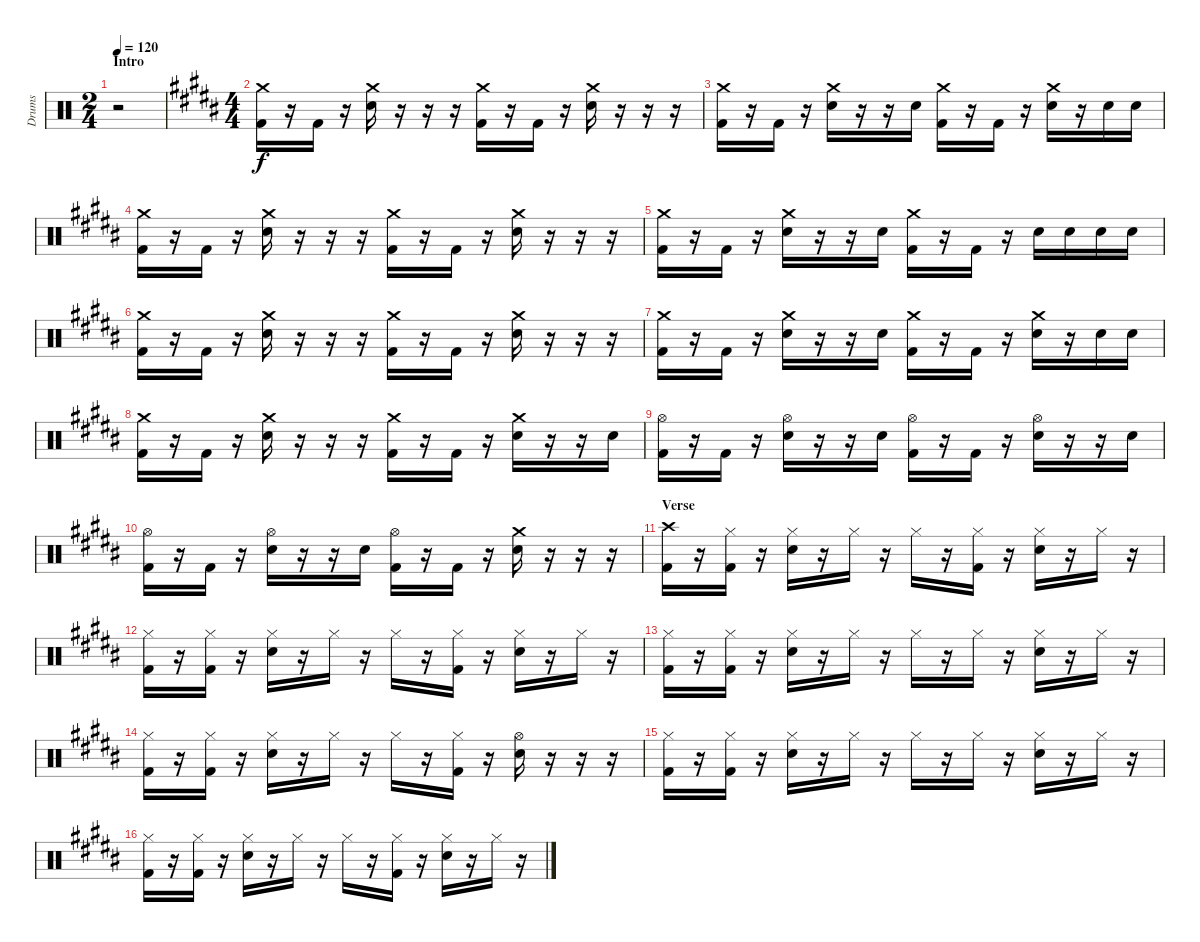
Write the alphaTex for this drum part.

\track ("Drums" "Drums") {instrument percussion}
\staff {score}
\articulation defaults
\ts (2 4)
\section ("" "Intro")
\tempo 120
\clef neutral
\ks c
r.2{dy f} |
\ts (4 4)
\ks b
("Crash medium (hit)" "Kick (hit) 2").16 r.16 "Kick (hit) 2".16 r.16 ("Crash medium (hit)" "Snare (hit) 2").16 r.16 r.16 r.16 ("Crash medium (hit)" "Kick (hit) 2").16 r.16 "Kick (hit) 2".16 r.16 ("Crash medium (hit)" "Snare (hit) 2").16 r.16 r.16 r.16 |
("Crash medium (hit)" "Kick (hit) 2").16 r.16 "Kick (hit) 2".16 r.16 ("Crash medium (hit)" "Snare (hit) 2").16 r.16 r.16 "Snare (hit) 2".16 ("Crash medium (hit)" "Kick (hit) 2").16 r.16 "Kick (hit) 2".16 r.16 ("Crash medium (hit)" "Snare (hit) 2").16 r.16 "Snare (hit) 2".16 "Snare (hit) 2".16 |
("Crash medium (hit)" "Kick (hit) 2").16 r.16 "Kick (hit) 2".16 r.16 ("Crash medium (hit)" "Snare (hit) 2").16 r.16 r.16 r.16 ("Crash medium (hit)" "Kick (hit) 2").16 r.16 "Kick (hit) 2".16 r.16 ("Crash medium (hit)" "Snare (hit) 2").16 r.16 r.16 r.16 |
("Crash medium (hit)" "Kick (hit) 2").16 r.16 "Kick (hit) 2".16 r.16 ("Crash medium (hit)" "Snare (hit) 2").16 r.16 r.16 "Snare (hit) 2".16 ("Crash medium (hit)" "Kick (hit) 2").16 r.16 "Kick (hit) 2".16 r.16 "Snare (hit) 2".16 "Snare (hit) 2".16 "Snare (hit) 2".16 "Snare (hit) 2".16 |
("Crash medium (hit)" "Kick (hit) 2").16 r.16 "Kick (hit) 2".16 r.16 ("Crash medium (hit)" "Snare (hit) 2").16 r.16 r.16 r.16 ("Crash medium (hit)" "Kick (hit) 2").16 r.16 "Kick (hit) 2".16 r.16 ("Crash medium (hit)" "Snare (hit) 2").16 r.16 r.16 r.16 |
("Crash medium (hit)" "Kick (hit) 2").16 r.16 "Kick (hit) 2".16 r.16 ("Crash medium (hit)" "Snare (hit) 2").16 r.16 r.16 "Snare (hit) 2".16 ("Crash medium (hit)" "Kick (hit) 2").16 r.16 "Kick (hit) 2".16 r.16 ("Crash medium (hit)" "Snare (hit) 2").16 r.16 "Snare (hit) 2".16 "Snare (hit) 2".16 |
("Crash medium (hit)" "Kick (hit) 2").16 r.16 "Kick (hit) 2".16 r.16 ("Crash medium (hit)" "Snare (hit) 2").16 r.16 r.16 r.16 ("Crash medium (hit)" "Kick (hit) 2").16 r.16 "Kick (hit) 2".16 r.16 ("Crash medium (hit)" "Snare (hit) 2").16 r.16 r.16 "Snare (hit) 2".16 |
("Hi-Hat (open)" "Kick (hit) 2").16 r.16 "Kick (hit) 2".16 r.16 ("Hi-Hat (open)" "Snare (hit) 2").16 r.16 r.16 "Snare (hit) 2".16 ("Hi-Hat (open)" "Kick (hit) 2").16 r.16 "Kick (hit) 2".16 r.16 ("Hi-Hat (open)" "Snare (hit) 2").16 r.16 r.16 "Snare (hit) 2".16 |
("Hi-Hat (open)" "Kick (hit) 2").16 r.16 "Kick (hit) 2".16 r.16 ("Hi-Hat (open)" "Snare (hit) 2").16 r.16 r.16 "Snare (hit) 2".16 ("Hi-Hat (open)" "Kick (hit) 2").16 r.16 "Kick (hit) 2".16 r.16 ("Crash medium (hit)" "Snare (hit) 2").16 r.16 r.16 r.16 |
\section ("" "Verse")
("Crash high (hit)" "Kick (hit) 2").16 r.16 ("Hi-Hat (closed)" "Kick (hit) 2").16 r.16 ("Hi-Hat (closed)" "Snare (hit) 2").16 r.16 "Hi-Hat (closed)".16 r.16 "Hi-Hat (closed)".16 r.16 ("Hi-Hat (closed)" "Kick (hit) 2").16 r.16 ("Hi-Hat (closed)" "Snare (hit) 2").16 r.16 "Hi-Hat (closed)".16 r.16 |
("Hi-Hat (closed)" "Kick (hit) 2").16 r.16 ("Hi-Hat (closed)" "Kick (hit) 2").16 r.16 ("Hi-Hat (closed)" "Snare (hit) 2").16 r.16 "Hi-Hat (closed)".16 r.16 "Hi-Hat (closed)".16 r.16 ("Hi-Hat (closed)" "Kick (hit) 2").16 r.16 ("Hi-Hat (closed)" "Snare (hit) 2").16 r.16 "Hi-Hat (closed)".16 r.16 |
("Hi-Hat (closed)" "Kick (hit) 2").16 r.16 ("Hi-Hat (closed)" "Kick (hit) 2").16 r.16 ("Hi-Hat (closed)" "Snare (hit) 2").16 r.16 "Hi-Hat (closed)".16 r.16 "Hi-Hat (closed)".16 r.16 "Hi-Hat (closed)".16 r.16 ("Hi-Hat (closed)" "Snare (hit) 2").16 r.16 "Hi-Hat (closed)".16 r.16 |
("Hi-Hat (closed)" "Kick (hit) 2").16 r.16 ("Hi-Hat (closed)" "Kick (hit) 2").16 r.16 ("Hi-Hat (closed)" "Snare (hit) 2").16 r.16 "Hi-Hat (closed)".16 r.16 "Hi-Hat (closed)".16 r.16 ("Hi-Hat (closed)" "Kick (hit) 2").16 r.16 ("Hi-Hat (open)" "Snare (hit) 2").16 r.16 r.16 r.16 |
("Hi-Hat (closed)" "Kick (hit) 2").16 r.16 ("Hi-Hat (closed)" "Kick (hit) 2").16 r.16 ("Hi-Hat (closed)" "Snare (hit) 2").16 r.16 "Hi-Hat (closed)".16 r.16 "Hi-Hat (closed)".16 r.16 "Hi-Hat (closed)".16 r.16 ("Hi-Hat (closed)" "Snare (hit) 2").16 r.16 "Hi-Hat (closed)".16 r.16 |
("Hi-Hat (closed)" "Kick (hit) 2").16 r.16 ("Hi-Hat (closed)" "Kick (hit) 2").16 r.16 ("Hi-Hat (closed)" "Snare (hit) 2").16 r.16 "Hi-Hat (closed)".16 r.16 "Hi-Hat (closed)".16 r.16 ("Hi-Hat (closed)" "Kick (hit) 2").16 r.16 ("Hi-Hat (closed)" "Snare (hit) 2").16 r.16 "Hi-Hat (closed)".16 r.16
